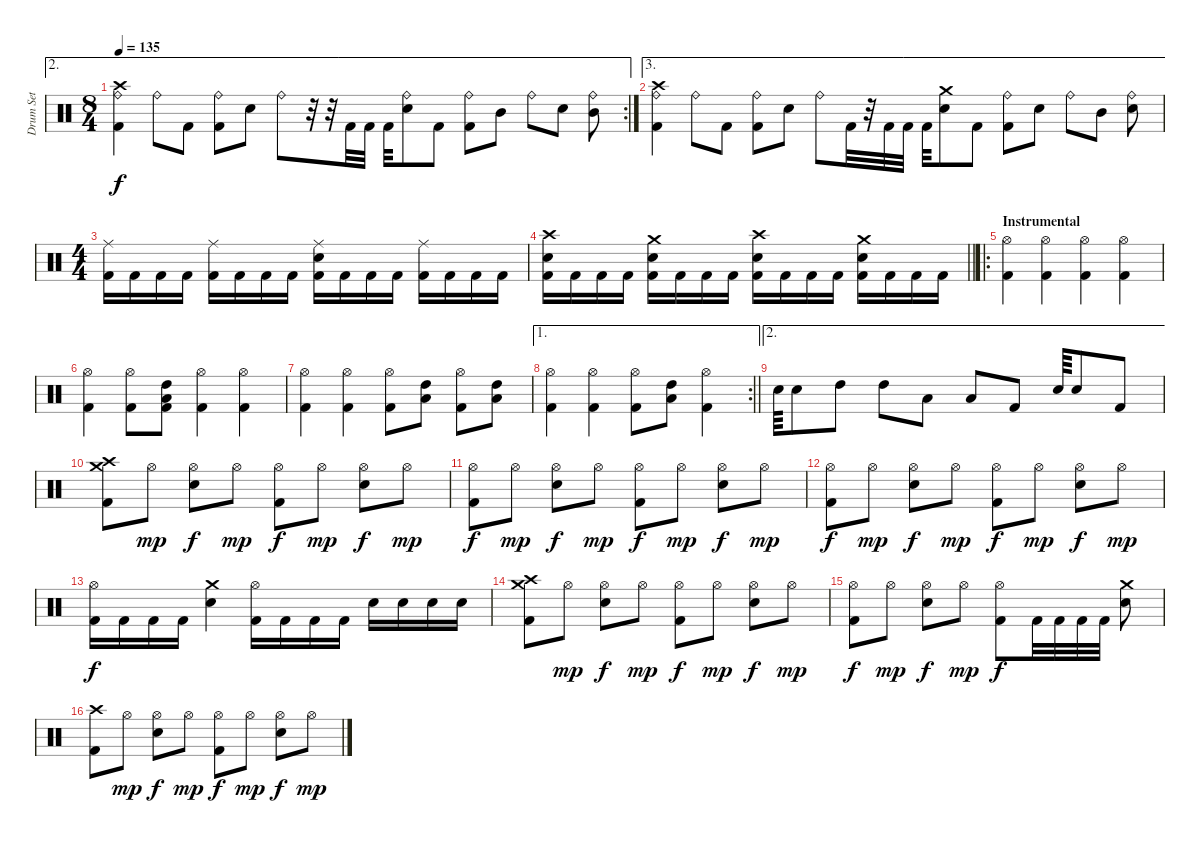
\track ("Drum Set" "Drum Set") {instrument percussion}
\staff {score}
\articulation defaults
\ae 2
\rc 2
\ts (8 4)
\tempo 135
\clef neutral
\ks c
("Ride (bell)" "Crash high (hit)" "Kick (hit) 2").4{dy f} "Ride (bell)".8 "Kick (hit) 2".8 ("Ride (bell)" "Kick (hit) 2").8 "Snare (hit) 2".8 "Ride (bell)".8 r.32 r.32 "Kick (hit) 2".32 "Kick (hit) 2".32 "Kick (hit) 2".32 ("Ride (bell)" "Snare (hit) 2").8 "Kick (hit) 2".8 ("Ride (bell)" "Kick (hit) 2").8 "Mid Tom (hit)".8 "Ride (bell)".8 "Snare (hit) 2".8 ("Ride (bell)" "Mid Tom (hit)").8 |
\ae 3
("Ride (bell)" "Crash high (hit)" "Kick (hit) 2").4 "Ride (bell)".8 "Kick (hit) 2".8 ("Ride (bell)" "Kick (hit) 2").8 "Snare (hit) 2".8 "Ride (bell)".8 "Kick (hit) 2".32 r.32 "Kick (hit) 2".32 "Kick (hit) 2".32 "Kick (hit) 2".32 ("Crash medium (hit)" "Snare (hit) 2").8 "Kick (hit) 2".8 ("Ride (bell)" "Kick (hit) 2").8 "Snare (hit) 2".8 "Ride (bell)".8 "Mid Tom (hit)".8 ("Ride (bell)" "Snare (hit) 2").8 |
\ts (4 4)
("Ride (middle)" "Kick (hit) 2").16 "Kick (hit) 2".16 "Kick (hit) 2".16 "Kick (hit) 2".16 ("Ride (middle)" "Kick (hit) 2").16 "Kick (hit) 2".16 "Kick (hit) 2".16 "Kick (hit) 2".16 ("Ride (middle)" "Snare (hit) 2" "Kick (hit) 2").16 "Kick (hit) 2".16 "Kick (hit) 2".16 "Kick (hit) 2".16 ("Ride (middle)" "Kick (hit) 2").16 "Kick (hit) 2".16 "Kick (hit) 2".16 "Kick (hit) 2".16 |
\barLineRight lightlight
("Crash high (hit)" "Snare (hit) 2" "Kick (hit) 2").16 "Kick (hit) 2".16 "Kick (hit) 2".16 "Kick (hit) 2".16 ("Crash medium (hit)" "Snare (hit) 2" "Kick (hit) 2").16 "Kick (hit) 2".16 "Kick (hit) 2".16 "Kick (hit) 2".16 ("Crash high (hit)" "Snare (hit) 2" "Kick (hit) 2").16 "Kick (hit) 2".16 "Kick (hit) 2".16 "Kick (hit) 2".16 ("Snare (hit) 2" "Crash medium (hit)" "Kick (hit) 2").16 "Kick (hit) 2".16 "Kick (hit) 2".16 "Kick (hit) 2".16 |
\ro
\section ("" "Instrumental")
("Hi-Hat (open)" "Kick (hit) 2").4 ("Hi-Hat (open)" "Kick (hit) 2").4 ("Hi-Hat (open)" "Kick (hit) 2").4 ("Hi-Hat (open)" "Kick (hit) 2").4 |
("Hi-Hat (open)" "Kick (hit) 2").4 ("Hi-Hat (open)" "Kick (hit) 2").8 ("High Tom (hit)" "Low Tom (hit)" "Kick (hit) 2").8 ("Hi-Hat (open)" "Kick (hit) 2").4 ("Hi-Hat (open)" "Kick (hit) 2").4 |
("Hi-Hat (open)" "Kick (hit) 2").4 ("Hi-Hat (open)" "Kick (hit) 2").4 ("Hi-Hat (open)" "Kick (hit) 2").8 ("Low Tom (hit)" "High Tom (hit)").8 ("Hi-Hat (open)" "Kick (hit) 2").8 ("Low Tom (hit)" "High Tom (hit)").8 |
\ae 1
\rc 2
\barLineRight lightlight
("Hi-Hat (open)" "Kick (hit) 2").4 ("Hi-Hat (open)" "Kick (hit) 2").4 ("Hi-Hat (open)" "Kick (hit) 2").8 ("Low Tom (hit)" "High Tom (hit)").8 ("Hi-Hat (open)" "Kick (hit) 2").4 |
\ae 2 "Snare (hit) 2".64 "Snare (hit) 2".8 "High Tom (hit)".8 "High Tom (hit)".8 "Low Tom (hit)".8 "Low Tom (hit)".8 "Kick (hit) 2".8 "Snare (hit) 2".64 "Snare (hit) 2".8 "Kick (hit) 2".8
|
("Crash medium (hit)" "Crash high (hit)" "Kick (hit) 2").8 "Hi-Hat (open)".8{dy mp} ("Hi-Hat (open)" "Snare (hit) 2").8{dy f} "Hi-Hat (open)".8{dy mp} ("Hi-Hat (open)" "Kick (hit) 2").8{dy f} "Hi-Hat (open)".8{dy mp} ("Hi-Hat (open)" "Snare (hit) 2").8{dy f} "Hi-Hat (open)".8{dy mp} |
("Hi-Hat (open)" "Kick (hit) 2").8{dy f} "Hi-Hat (open)".8{dy mp} ("Hi-Hat (open)" "Snare (hit) 2").8{dy f} "Hi-Hat (open)".8{dy mp} ("Hi-Hat (open)" "Kick (hit) 2").8{dy f} "Hi-Hat (open)".8{dy mp} ("Hi-Hat (open)" "Snare (hit) 2").8{dy f} "Hi-Hat (open)".8{dy mp} |
("Hi-Hat (open)" "Kick (hit) 2").8{dy f} "Hi-Hat (open)".8{dy mp} ("Hi-Hat (open)" "Snare (hit) 2").8{dy f} "Hi-Hat (open)".8{dy mp} ("Hi-Hat (open)" "Kick (hit) 2").8{dy f} "Hi-Hat (open)".8{dy mp} ("Hi-Hat (open)" "Snare (hit) 2").8{dy f} "Hi-Hat (open)".8{dy mp} |
("Hi-Hat (open)" "Kick (hit) 2").16{dy f} "Kick (hit) 2".16 "Kick (hit) 2".16 "Kick (hit) 2".16 ("Crash medium (hit)" "Snare (hit) 2").4 ("Hi-Hat (open)" "Kick (hit) 2").16 "Kick (hit) 2".16 "Kick (hit) 2".16 "Kick (hit) 2".16 "Snare (hit) 2".16 "Snare (hit) 2".16 "Snare (hit) 2".16 "Snare (hit) 2".16 |
("Crash medium (hit)" "Crash high (hit)" "Kick (hit) 2").8 "Hi-Hat (open)".8{dy mp} ("Hi-Hat (open)" "Snare (hit) 2").8{dy f} "Hi-Hat (open)".8{dy mp} ("Hi-Hat (open)" "Kick (hit) 2").8{dy f} "Hi-Hat (open)".8{dy mp} ("Hi-Hat (open)" "Snare (hit) 2").8{dy f} "Hi-Hat (open)".8{dy mp} |
("Hi-Hat (open)" "Kick (hit) 2").8{dy f} "Hi-Hat (open)".8{dy mp} ("Hi-Hat (open)" "Snare (hit) 2").8{dy f} "Hi-Hat (open)".8{dy mp} ("Hi-Hat (open)" "Kick (hit) 2").8{dy f} "Kick (hit) 2".32 "Kick (hit) 2".32 "Kick (hit) 2".32 "Kick (hit) 2".32 ("Crash medium (hit)" "Snare (hit) 2").8 |
("Crash high (hit)" "Kick (hit) 2").8 "Hi-Hat (open)".8{dy mp} ("Hi-Hat (open)" "Snare (hit) 2").8{dy f} "Hi-Hat (open)".8{dy mp} ("Hi-Hat (open)" "Kick (hit) 2").8{dy f} "Hi-Hat (open)".8{dy mp} ("Hi-Hat (open)" "Snare (hit) 2").8{dy f} "Hi-Hat (open)".8{dy mp}
